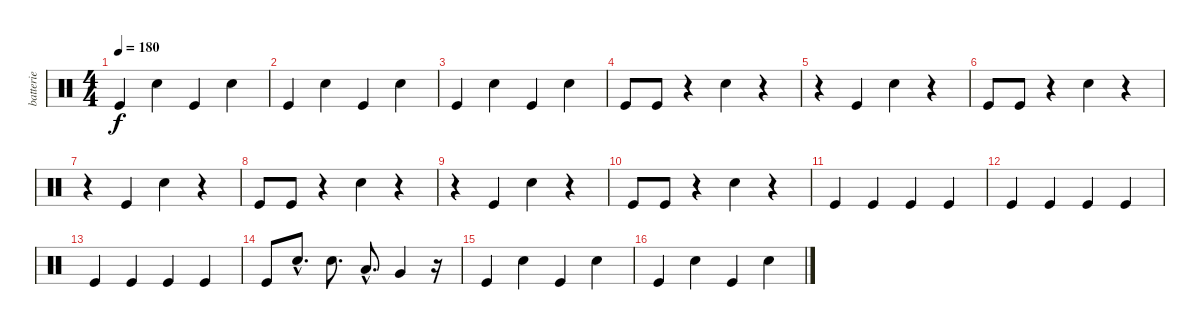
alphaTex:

\track ("batterie" "batterie") {instrument percussion}
\staff {score}
\articulation defaults
\ts (4 4)
\tempo 180
\clef neutral
\ks c "Kick (hit)".4{dy f} "Snare (hit) 2".4 "Kick (hit)".4 "Snare (hit) 2".4
|
"Kick (hit)".4 "Snare (hit) 2".4 "Kick (hit)".4 "Snare (hit) 2".4 |
"Kick (hit)".4 "Snare (hit) 2".4 "Kick (hit)".4 "Snare (hit) 2".4 |
"Kick (hit)".8 "Kick (hit)".8 r.4 "Snare (hit) 2".4 r.4 |
r.4 "Kick (hit)".4 "Snare (hit) 2".4 r.4 |
"Kick (hit)".8 "Kick (hit)".8 r.4 "Snare (hit) 2".4 r.4 |
r.4 "Kick (hit)".4 "Snare (hit) 2".4 r.4 |
"Kick (hit)".8 "Kick (hit)".8 r.4 "Snare (hit) 2".4 r.4 |
r.4 "Kick (hit)".4 "Snare (hit) 2".4 r.4 |
"Kick (hit)".8 "Kick (hit)".8 r.4 "Snare (hit) 2".4 r.4 |
"Kick (hit)".4 "Kick (hit)".4 "Kick (hit)".4 "Kick (hit)".4 |
"Kick (hit)".4 "Kick (hit)".4 "Kick (hit)".4 "Kick (hit)".4 |
"Kick (hit)".4 "Kick (hit)".4 "Kick (hit)".4 "Kick (hit)".4 |
"Kick (hit)".8 "Snare (hit) 2"{hac}.8{d} "Snare (hit) 2".8{d} "Low Tom (hit)"{hac}.8{d} "Very Low Tom (hit)".4 r.16 |
"Kick (hit)".4 "Snare (hit) 2".4 "Kick (hit)".4 "Snare (hit) 2".4 |
"Kick (hit)".4 "Snare (hit) 2".4 "Kick (hit)".4 "Snare (hit) 2".4
